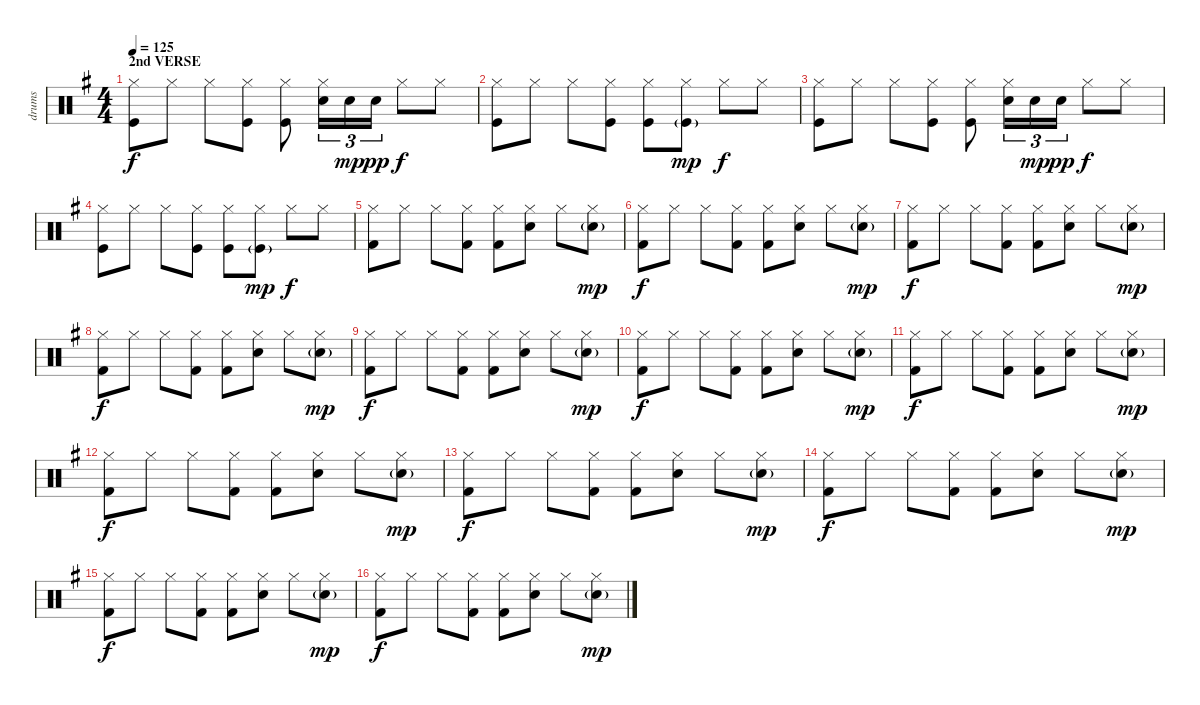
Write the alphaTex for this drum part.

\track ("drums" "drums") {instrument percussion}
\staff {score}
\articulation defaults
\ts (4 4)
\section ("" "2nd VERSE")
\tempo 125
\clef neutral
\ks eminor
("Hi-Hat (closed)" "Kick (hit)").8{dy f} "Hi-Hat (closed)".8 "Hi-Hat (closed)".8 ("Hi-Hat (closed)" "Kick (hit)").8 ("Hi-Hat (closed)" "Kick (hit)").8 ("Hi-Hat (closed)" "Snare (hit) 2").16{tu (3 2)} "Snare (hit) 2".16{tu (3 2) dy mp} "Snare (hit) 2".16{tu (3 2) dy pp} "Hi-Hat (closed)".8{dy f} "Hi-Hat (closed)".8 |
("Hi-Hat (closed)" "Kick (hit)").8 "Hi-Hat (closed)".8 "Hi-Hat (closed)".8 ("Hi-Hat (closed)" "Kick (hit)").8 ("Hi-Hat (closed)" "Kick (hit)").8 ("Hi-Hat (closed)" "Kick (hit)"{g}).8{dy mp} "Hi-Hat (closed)".8{dy f} "Hi-Hat (closed)".8 |
("Hi-Hat (closed)" "Kick (hit)").8 "Hi-Hat (closed)".8 "Hi-Hat (closed)".8 ("Hi-Hat (closed)" "Kick (hit)").8 ("Hi-Hat (closed)" "Kick (hit)").8 ("Hi-Hat (closed)" "Snare (hit) 2").16{tu (3 2)} "Snare (hit) 2".16{tu (3 2) dy mp} "Snare (hit) 2".16{tu (3 2) dy pp} "Hi-Hat (closed)".8{dy f} "Hi-Hat (closed)".8 |
("Hi-Hat (closed)" "Kick (hit)").8 "Hi-Hat (closed)".8 "Hi-Hat (closed)".8 ("Hi-Hat (closed)" "Kick (hit)").8 ("Hi-Hat (closed)" "Kick (hit)").8 ("Hi-Hat (closed)" "Kick (hit)"{g}).8{dy mp} "Hi-Hat (closed)".8{dy f} "Hi-Hat (closed)".8 |
("Hi-Hat (closed)" "Kick (hit) 2").8 "Hi-Hat (closed)".8 "Hi-Hat (closed)".8 ("Hi-Hat (closed)" "Kick (hit) 2").8 ("Hi-Hat (closed)" "Kick (hit) 2").8 ("Hi-Hat (closed)" "Snare (hit) 2").8 "Hi-Hat (closed)".8 ("Hi-Hat (closed)" "Snare (hit) 2"{g}).8{dy mp} |
("Hi-Hat (closed)" "Kick (hit) 2").8{dy f} "Hi-Hat (closed)".8 "Hi-Hat (closed)".8 ("Hi-Hat (closed)" "Kick (hit) 2").8 ("Hi-Hat (closed)" "Kick (hit) 2").8 ("Hi-Hat (closed)" "Snare (hit) 2").8 "Hi-Hat (closed)".8 ("Hi-Hat (closed)" "Snare (hit) 2"{g}).8{dy mp} |
("Hi-Hat (closed)" "Kick (hit) 2").8{dy f} "Hi-Hat (closed)".8 "Hi-Hat (closed)".8 ("Hi-Hat (closed)" "Kick (hit) 2").8 ("Hi-Hat (closed)" "Kick (hit) 2").8 ("Hi-Hat (closed)" "Snare (hit) 2").8 "Hi-Hat (closed)".8 ("Hi-Hat (closed)" "Snare (hit) 2"{g}).8{dy mp} |
("Hi-Hat (closed)" "Kick (hit) 2").8{dy f} "Hi-Hat (closed)".8 "Hi-Hat (closed)".8 ("Hi-Hat (closed)" "Kick (hit) 2").8 ("Hi-Hat (closed)" "Kick (hit) 2").8 ("Hi-Hat (closed)" "Snare (hit) 2").8 "Hi-Hat (closed)".8 ("Hi-Hat (closed)" "Snare (hit) 2"{g}).8{dy mp} |
("Hi-Hat (closed)" "Kick (hit) 2").8{dy f} "Hi-Hat (closed)".8 "Hi-Hat (closed)".8 ("Hi-Hat (closed)" "Kick (hit) 2").8 ("Hi-Hat (closed)" "Kick (hit) 2").8 ("Hi-Hat (closed)" "Snare (hit) 2").8 "Hi-Hat (closed)".8 ("Hi-Hat (closed)" "Snare (hit) 2"{g}).8{dy mp} |
("Hi-Hat (closed)" "Kick (hit) 2").8{dy f} "Hi-Hat (closed)".8 "Hi-Hat (closed)".8 ("Hi-Hat (closed)" "Kick (hit) 2").8 ("Hi-Hat (closed)" "Kick (hit) 2").8 ("Hi-Hat (closed)" "Snare (hit) 2").8 "Hi-Hat (closed)".8 ("Hi-Hat (closed)" "Snare (hit) 2"{g}).8{dy mp} |
("Hi-Hat (closed)" "Kick (hit) 2").8{dy f} "Hi-Hat (closed)".8 "Hi-Hat (closed)".8 ("Hi-Hat (closed)" "Kick (hit) 2").8 ("Hi-Hat (closed)" "Kick (hit) 2").8 ("Hi-Hat (closed)" "Snare (hit) 2").8 "Hi-Hat (closed)".8 ("Hi-Hat (closed)" "Snare (hit) 2"{g}).8{dy mp} |
("Hi-Hat (closed)" "Kick (hit) 2").8{dy f} "Hi-Hat (closed)".8 "Hi-Hat (closed)".8 ("Hi-Hat (closed)" "Kick (hit) 2").8 ("Hi-Hat (closed)" "Kick (hit) 2").8 ("Hi-Hat (closed)" "Snare (hit) 2").8 "Hi-Hat (closed)".8 ("Hi-Hat (closed)" "Snare (hit) 2"{g}).8{dy mp} |
("Hi-Hat (closed)" "Kick (hit) 2").8{dy f} "Hi-Hat (closed)".8 "Hi-Hat (closed)".8 ("Hi-Hat (closed)" "Kick (hit) 2").8 ("Hi-Hat (closed)" "Kick (hit) 2").8 ("Hi-Hat (closed)" "Snare (hit) 2").8 "Hi-Hat (closed)".8 ("Hi-Hat (closed)" "Snare (hit) 2"{g}).8{dy mp} |
("Hi-Hat (closed)" "Kick (hit) 2").8{dy f} "Hi-Hat (closed)".8 "Hi-Hat (closed)".8 ("Hi-Hat (closed)" "Kick (hit) 2").8 ("Hi-Hat (closed)" "Kick (hit) 2").8 ("Hi-Hat (closed)" "Snare (hit) 2").8 "Hi-Hat (closed)".8 ("Hi-Hat (closed)" "Snare (hit) 2"{g}).8{dy mp} |
("Hi-Hat (closed)" "Kick (hit) 2").8{dy f} "Hi-Hat (closed)".8 "Hi-Hat (closed)".8 ("Hi-Hat (closed)" "Kick (hit) 2").8 ("Hi-Hat (closed)" "Kick (hit) 2").8 ("Hi-Hat (closed)" "Snare (hit) 2").8 "Hi-Hat (closed)".8 ("Hi-Hat (closed)" "Snare (hit) 2"{g}).8{dy mp} |
("Hi-Hat (closed)" "Kick (hit) 2").8{dy f} "Hi-Hat (closed)".8 "Hi-Hat (closed)".8 ("Hi-Hat (closed)" "Kick (hit) 2").8 ("Hi-Hat (closed)" "Kick (hit) 2").8 ("Hi-Hat (closed)" "Snare (hit) 2").8 "Hi-Hat (closed)".8 ("Hi-Hat (closed)" "Snare (hit) 2"{g}).8{dy mp}
